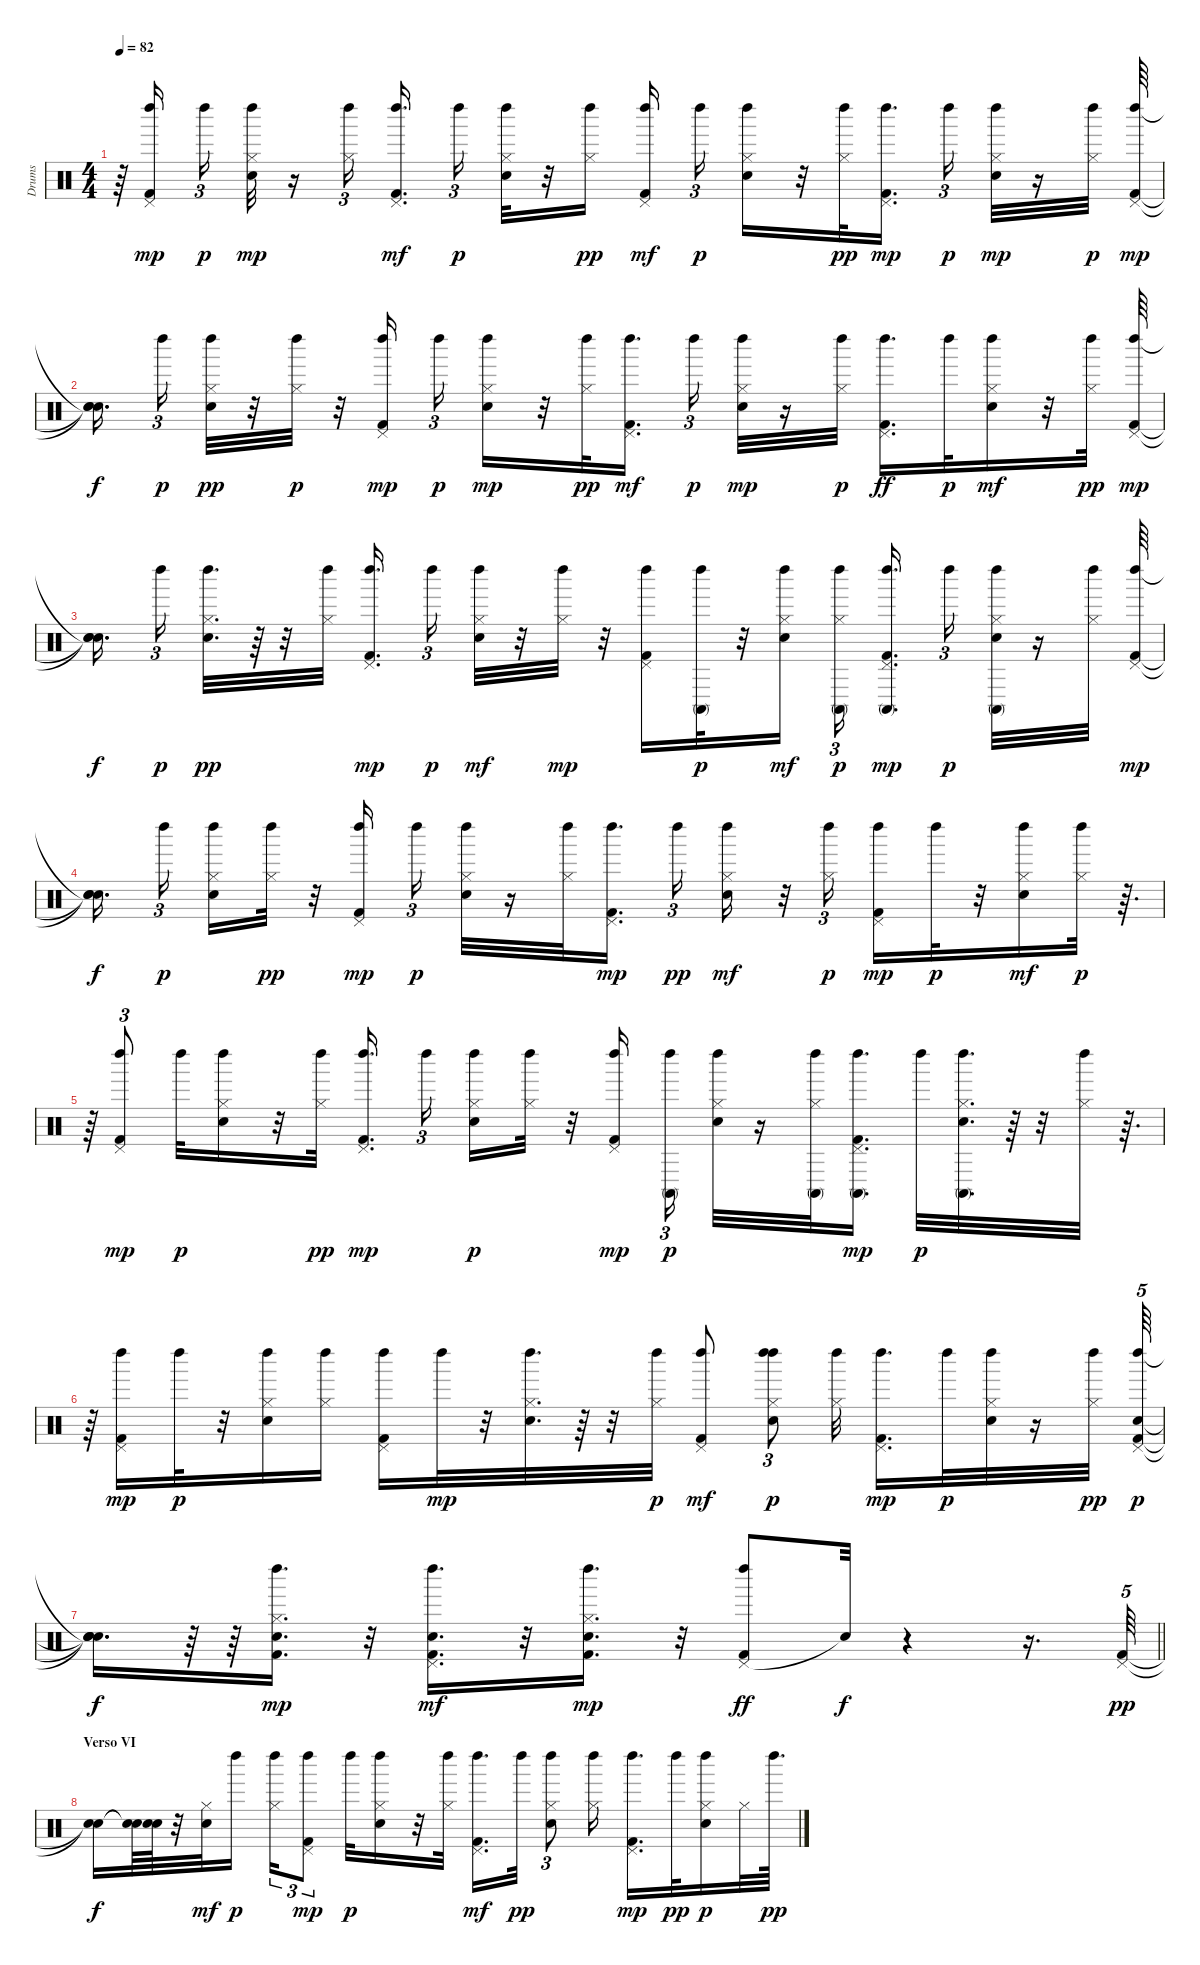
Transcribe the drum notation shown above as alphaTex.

\track ("Drums" "Drums") {instrument percussion}
\staff {score}
\articulation defaults
\ts (4 4)
\tempo 82
\clef neutral
\ks c
r.64{dy p} ("Pedal Hi-Hat (hit)" "Left Maraca (hit)" "Kick (hit) 2").16{dy mp beam splitsecondary} "Left Maraca (hit)".16{tu (3 2) dy p} ("Hi-Hat (closed)" "Hand Clap (hit)" "Left Maraca (hit)").32{dy mp} r.16 ("Hi-Hat (closed)" "Left Maraca (hit)").16{tu (3 2)} ("Pedal Hi-Hat (hit)" "Left Maraca (hit)" "Kick (hit) 2").16{d dy mf beam splitsecondary} "Left Maraca (hit)".16{tu (3 2) dy p} ("Hi-Hat (closed)" "Hand Clap (hit)" "Left Maraca (hit)").32 r.32 ("Left Maraca (hit)" "Hi-Hat (closed)").16{dy pp} ("Pedal Hi-Hat (hit)" "Left Maraca (hit)" "Kick (hit) 2").16{dy mf beam splitsecondary} "Left Maraca (hit)".16{tu (3 2) dy p} ("Hi-Hat (closed)" "Left Maraca (hit)" "Hand Clap (hit)").16 r.32 ("Left Maraca (hit)" "Hi-Hat (closed)").32{dy pp} ("Pedal Hi-Hat (hit)" "Left Maraca (hit)" "Kick (hit) 2").16{d dy mp} "Left Maraca (hit)".16{tu (3 2) dy p} ("Hi-Hat (closed)" "Left Maraca (hit)" "Hand Clap (hit)").32{dy mp} r.16 ("Left Maraca (hit)" "Hi-Hat (closed)").32{dy p} ("Pedal Hi-Hat (hit)" "Left Maraca (hit)" "Kick (hit) 2").64{dy mp} |
("Snare (hit)"{t} "Snare (hit)"{t} "Snare (hit)"{t}).16{d dy f beam splitsecondary} "Left Maraca (hit)".16{tu (3 2) dy p} ("Hi-Hat (closed)" "Left Maraca (hit)" "Hand Clap (hit)").32{dy pp} r.32 ("Left Maraca (hit)" "Hi-Hat (closed)").32{dy p} r.32 ("Pedal Hi-Hat (hit)" "Left Maraca (hit)" "Kick (hit) 2").16{dy mp beam splitsecondary} "Left Maraca (hit)".16{tu (3 2) dy p} ("Hi-Hat (closed)" "Left Maraca (hit)" "Hand Clap (hit)").16{dy mp} r.32 ("Hi-Hat (closed)" "Left Maraca (hit)").32{dy pp} ("Pedal Hi-Hat (hit)" "Left Maraca (hit)" "Kick (hit) 2").16{d dy mf} "Left Maraca (hit)".16{tu (3 2) dy p} ("Hi-Hat (closed)" "Left Maraca (hit)" "Hand Clap (hit)").32{dy mp} r.16 ("Hi-Hat (closed)" "Left Maraca (hit)").32{dy p} ("Pedal Hi-Hat (hit)" "Left Maraca (hit)" "Kick (hit) 2").16{d dy ff} "Left Maraca (hit)".32{dy p} ("Hi-Hat (closed)" "Left Maraca (hit)" "Hand Clap (hit)").16{dy mf} r.32 ("Hi-Hat (closed)" "Left Maraca (hit)").32{dy pp} ("Pedal Hi-Hat (hit)" "Left Maraca (hit)" "Kick (hit) 2").64{dy mp} |
("Snare (hit)"{t} "Snare (hit)"{t} "Snare (hit)"{t}).16{d dy f beam splitsecondary} "Left Maraca (hit)".16{tu (3 2) dy p} ("Hi-Hat (closed)" "Hand Clap (hit)" "Left Maraca (hit)").32{d dy pp} r.64 r.32 ("Left Maraca (hit)" "Hi-Hat (closed)").32 ("Pedal Hi-Hat (hit)" "Left Maraca (hit)" "Kick (hit) 2").16{d dy mp beam splitsecondary} "Left Maraca (hit)".16{tu (3 2) dy p} ("Hi-Hat (closed)" "Left Maraca (hit)" "Hand Clap (hit)").32{dy mf} r.32 ("Hi-Hat (closed)" "Left Maraca (hit)").32{dy mp} r.32 ("Pedal Hi-Hat (hit)" "Kick (hit) 2" "Left Maraca (hit)").16 ("Left Maraca (hit)" "Conga high (mute)").32{dy p} r.32 ("Hi-Hat (closed)" "Left Maraca (hit)" "Hand Clap (hit)").16{dy mf} ("Conga high (mute)" "Hi-Hat (closed)" "Left Maraca (hit)").16{tu (3 2) dy p} ("Conga high (mute)" "Pedal Hi-Hat (hit)" "Left Maraca (hit)" "Kick (hit) 2").16{d dy mp beam splitsecondary} "Left Maraca (hit)".16{tu (3 2) dy p} ("Conga high (mute)" "Hi-Hat (closed)" "Hand Clap (hit)" "Left Maraca (hit)").32 r.16 ("Left Maraca (hit)" "Hi-Hat (closed)").32 ("Pedal Hi-Hat (hit)" "Left Maraca (hit)" "Kick (hit) 2").64{dy mp} |
("Snare (hit)"{t} "Snare (hit)"{t} "Snare (hit)"{t}).16{d dy f beam splitsecondary} "Left Maraca (hit)".16{tu (3 2) dy p beam splitsecondary} ("Hi-Hat (closed)" "Left Maraca (hit)" "Hand Clap (hit)").16 ("Left Maraca (hit)" "Hi-Hat (closed)").32{dy pp} r.32 ("Pedal Hi-Hat (hit)" "Left Maraca (hit)" "Kick (hit) 2").16{dy mp beam splitsecondary} "Left Maraca (hit)".16{tu (3 2) dy p} ("Hi-Hat (closed)" "Hand Clap (hit)" "Left Maraca (hit)").32 r.16 ("Left Maraca (hit)" "Hi-Hat (closed)").32 ("Pedal Hi-Hat (hit)" "Left Maraca (hit)" "Kick (hit) 2").16{d dy mp} "Left Maraca (hit)".16{tu (3 2) dy pp} ("Hi-Hat (closed)" "Left Maraca (hit)" "Hand Clap (hit)").16{dy mf} r.32 ("Hi-Hat (closed)" "Left Maraca (hit)").16{tu (3 2) dy p} ("Pedal Hi-Hat (hit)" "Left Maraca (hit)" "Kick (hit) 2").16{dy mp} "Left Maraca (hit)".32{dy p} r.32 ("Hi-Hat (closed)" "Left Maraca (hit)" "Hand Clap (hit)").16{dy mf} ("Left Maraca (hit)" "Hi-Hat (closed)").32{dy p} r.64{d} |
r.64 ("Pedal Hi-Hat (hit)" "Left Maraca (hit)" "Kick (hit) 2").8{tu (3 2) dy mp} "Left Maraca (hit)".32{dy p} ("Hi-Hat (closed)" "Hand Clap (hit)" "Left Maraca (hit)").16 r.32 ("Left Maraca (hit)" "Hi-Hat (closed)").32{dy pp} ("Pedal Hi-Hat (hit)" "Left Maraca (hit)" "Kick (hit) 2").16{d dy mp beam splitsecondary} "Left Maraca (hit)".16{tu (3 2) beam splitsecondary} ("Hi-Hat (closed)" "Hand Clap (hit)" "Left Maraca (hit)").16{dy p} ("Left Maraca (hit)" "Hi-Hat (closed)").32 r.32 ("Pedal Hi-Hat (hit)" "Left Maraca (hit)" "Kick (hit) 2").16{dy mp beam splitsecondary} ("Conga high (mute)" "Left Maraca (hit)").16{tu (3 2) dy p} ("Hi-Hat (closed)" "Hand Clap (hit)" "Left Maraca (hit)").32 r.16 ("Conga high (mute)" "Hi-Hat (closed)" "Left Maraca (hit)").32 ("Conga high (mute)" "Pedal Hi-Hat (hit)" "Kick (hit) 2" "Left Maraca (hit)").16{d dy mp} "Left Maraca (hit)".32{dy p} ("Conga high (mute)" "Hi-Hat (closed)" "Left Maraca (hit)" "Hand Clap (hit)").32{d} r.64 r.32 ("Hi-Hat (closed)" "Left Maraca (hit)").32 r.64{d} |
r.64 ("Pedal Hi-Hat (hit)" "Left Maraca (hit)" "Kick (hit) 2").16{dy mp} "Left Maraca (hit)".32{dy p} r.32 ("Hi-Hat (closed)" "Hand Clap (hit)" "Left Maraca (hit)").16 ("Hi-Hat (closed)" "Left Maraca (hit)").16 ("Left Maraca (hit)" "Kick (hit) 2" "Pedal Hi-Hat (hit)").16 "Left Maraca (hit)".32{dy mp} r.32 ("Hi-Hat (closed)" "Hand Clap (hit)" "Left Maraca (hit)").32{d} r.64 r.32 ("Hi-Hat (closed)" "Left Maraca (hit)").32{dy p} ("Pedal Hi-Hat (hit)" "Left Maraca (hit)" "Kick (hit) 2").8{dy mf} ("Hi-Hat (closed)" "Left Maraca (hit)" "Left Maraca (hit)" "Hand Clap (hit)").8{tu (3 2) dy p} ("Hi-Hat (closed)" "Left Maraca (hit)").32 ("Pedal Hi-Hat (hit)" "Left Maraca (hit)" "Kick (hit) 2").16{d dy mp} "Left Maraca (hit)".32{dy p} ("Hi-Hat (closed)" "Left Maraca (hit)" "Hand Clap (hit)").32 r.16 ("Hi-Hat (closed)" "Left Maraca (hit)").32{dy pp} ("Left Maraca (hit)" "Hand Clap (hit)" "Kick (hit) 2" "Pedal Hi-Hat (hit)").64{tu (5 4) dy p} |
\barLineRight lightlight
("Snare (hit)"{t} "Snare (hit)"{t} "Snare (hit)"{t} "Snare (hit)"{t}).16{d dy f} r.64 r.64 ("Hi-Hat (closed)" "Left Maraca (hit)" "Kick (hit) 2" "Hand Clap (hit)").16{d dy mp} r.32 ("Pedal Hi-Hat (hit)" "Left Maraca (hit)" "Hand Clap (hit)" "Kick (hit) 2").16{d dy mf} r.32 ("Hi-Hat (closed)" "Left Maraca (hit)" "Kick (hit) 2" "Hand Clap (hit)").16{d dy mp} r.32 ("Pedal Hi-Hat (hit)" "Left Maraca (hit)" "Kick (hit) 2").8{dy ff} "Snare (hit)"{t}.32{dy f} r.4 r.16{d} ("Kick (hit) 2" "Pedal Hi-Hat (hit)").64{tu (5 4) dy pp} |
\section ("" "Verso VI")
("Snare (hit)"{t} "Snare (hit)"{t}).16{dy f} ("Snare (hit)"{t} "Snare (hit)"{t}).64 ("Snare (hit)"{t} "Snare (hit)"{t}).64 r.32 ("Hi-Hat (closed)" "Hand Clap (hit)").32{dy mf} "Left Maraca (hit)".16{dy p beam splitsecondary} ("Hi-Hat (closed)" "Left Maraca (hit)").16{tu (3 2)} ("Kick (hit) 2" "Pedal Hi-Hat (hit)" "Left Maraca (hit)").8{tu (3 2) dy mp} "Left Maraca (hit)".32{dy p} ("Hi-Hat (closed)" "Hand Clap (hit)" "Left Maraca (hit)").16 r.32 ("Hi-Hat (closed)" "Left Maraca (hit)").32 ("Pedal Hi-Hat (hit)" "Kick (hit) 2" "Left Maraca (hit)").16{d dy mf} "Left Maraca (hit)".32{dy pp} ("Hi-Hat (closed)" "Hand Clap (hit)" "Left Maraca (hit)").8{tu (3 2)} ("Hi-Hat (closed)" "Left Maraca (hit)").16 ("Pedal Hi-Hat (hit)" "Kick (hit) 2" "Left Maraca (hit)").16{d dy mp} "Left Maraca (hit)".32{dy pp} ("Hi-Hat (closed)" "Hand Clap (hit)" "Left Maraca (hit)").16{dy p} "Hi-Hat (closed)".32 "Left Maraca (hit)".64{d dy pp}
